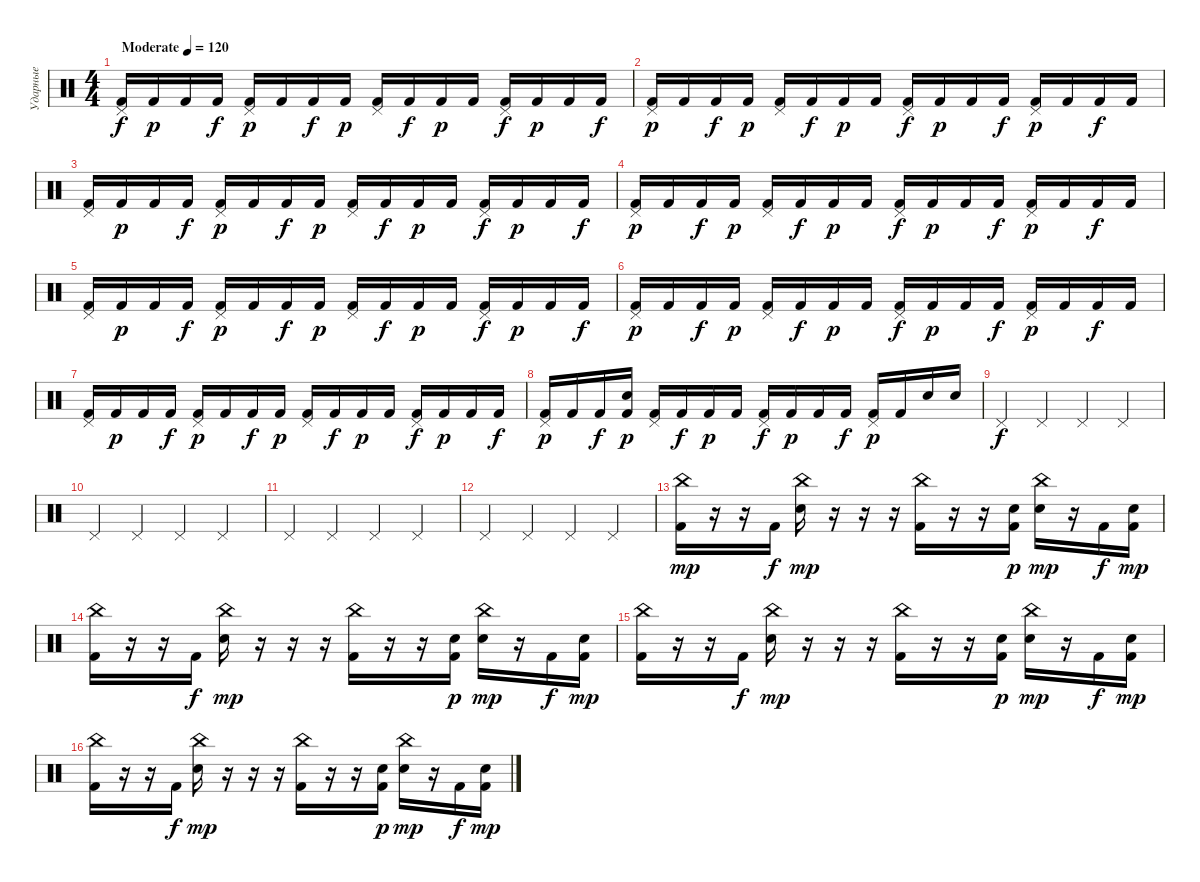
\track ("Ударные" "Ударные") {instrument percussion}
\staff {score}
\articulation defaults
\ts (4 4)
\tempo (120 "Moderate")
\clef neutral
\ks c
("Kick (hit) 2" "Pedal Hi-Hat (hit)").16{dy f} "Kick (hit) 2".16{dy p} "Kick (hit) 2".16 "Kick (hit) 2".16{dy f} ("Kick (hit) 2" "Pedal Hi-Hat (hit)").16{dy p} "Kick (hit) 2".16 "Kick (hit) 2".16{dy f} "Kick (hit) 2".16{dy p} ("Kick (hit) 2" "Pedal Hi-Hat (hit)").16 "Kick (hit) 2".16{dy f} "Kick (hit) 2".16{dy p} "Kick (hit) 2".16 ("Kick (hit) 2" "Pedal Hi-Hat (hit)").16{dy f} "Kick (hit) 2".16{dy p} "Kick (hit) 2".16 "Kick (hit) 2".16{dy f} |
("Kick (hit) 2" "Pedal Hi-Hat (hit)").16{dy p} "Kick (hit) 2".16 "Kick (hit) 2".16{dy f} "Kick (hit) 2".16{dy p} ("Kick (hit) 2" "Pedal Hi-Hat (hit)").16 "Kick (hit) 2".16{dy f} "Kick (hit) 2".16{dy p} "Kick (hit) 2".16 ("Kick (hit) 2" "Pedal Hi-Hat (hit)").16{dy f} "Kick (hit) 2".16{dy p} "Kick (hit) 2".16 "Kick (hit) 2".16{dy f} ("Kick (hit) 2" "Pedal Hi-Hat (hit)").16{dy p} "Kick (hit) 2".16 "Kick (hit) 2".16{dy f} "Kick (hit) 2".16 |
("Kick (hit) 2" "Pedal Hi-Hat (hit)").16 "Kick (hit) 2".16{dy p} "Kick (hit) 2".16 "Kick (hit) 2".16{dy f} ("Kick (hit) 2" "Pedal Hi-Hat (hit)").16{dy p} "Kick (hit) 2".16 "Kick (hit) 2".16{dy f} "Kick (hit) 2".16{dy p} ("Kick (hit) 2" "Pedal Hi-Hat (hit)").16 "Kick (hit) 2".16{dy f} "Kick (hit) 2".16{dy p} "Kick (hit) 2".16 ("Kick (hit) 2" "Pedal Hi-Hat (hit)").16{dy f} "Kick (hit) 2".16{dy p} "Kick (hit) 2".16 "Kick (hit) 2".16{dy f} |
("Kick (hit) 2" "Pedal Hi-Hat (hit)").16{dy p} "Kick (hit) 2".16 "Kick (hit) 2".16{dy f} "Kick (hit) 2".16{dy p} ("Kick (hit) 2" "Pedal Hi-Hat (hit)").16 "Kick (hit) 2".16{dy f} "Kick (hit) 2".16{dy p} "Kick (hit) 2".16 ("Kick (hit) 2" "Pedal Hi-Hat (hit)").16{dy f} "Kick (hit) 2".16{dy p} "Kick (hit) 2".16 "Kick (hit) 2".16{dy f} ("Kick (hit) 2" "Pedal Hi-Hat (hit)").16{dy p} "Kick (hit) 2".16 "Kick (hit) 2".16{dy f} "Kick (hit) 2".16 |
("Kick (hit) 2" "Pedal Hi-Hat (hit)").16 "Kick (hit) 2".16{dy p} "Kick (hit) 2".16 "Kick (hit) 2".16{dy f} ("Kick (hit) 2" "Pedal Hi-Hat (hit)").16{dy p} "Kick (hit) 2".16 "Kick (hit) 2".16{dy f} "Kick (hit) 2".16{dy p} ("Kick (hit) 2" "Pedal Hi-Hat (hit)").16 "Kick (hit) 2".16{dy f} "Kick (hit) 2".16{dy p} "Kick (hit) 2".16 ("Kick (hit) 2" "Pedal Hi-Hat (hit)").16{dy f} "Kick (hit) 2".16{dy p} "Kick (hit) 2".16 "Kick (hit) 2".16{dy f} |
("Kick (hit) 2" "Pedal Hi-Hat (hit)").16{dy p} "Kick (hit) 2".16 "Kick (hit) 2".16{dy f} "Kick (hit) 2".16{dy p} ("Kick (hit) 2" "Pedal Hi-Hat (hit)").16 "Kick (hit) 2".16{dy f} "Kick (hit) 2".16{dy p} "Kick (hit) 2".16 ("Kick (hit) 2" "Pedal Hi-Hat (hit)").16{dy f} "Kick (hit) 2".16{dy p} "Kick (hit) 2".16 "Kick (hit) 2".16{dy f} ("Kick (hit) 2" "Pedal Hi-Hat (hit)").16{dy p} "Kick (hit) 2".16 "Kick (hit) 2".16{dy f} "Kick (hit) 2".16 |
("Kick (hit) 2" "Pedal Hi-Hat (hit)").16 "Kick (hit) 2".16{dy p} "Kick (hit) 2".16 "Kick (hit) 2".16{dy f} ("Kick (hit) 2" "Pedal Hi-Hat (hit)").16{dy p} "Kick (hit) 2".16 "Kick (hit) 2".16{dy f} "Kick (hit) 2".16{dy p} ("Kick (hit) 2" "Pedal Hi-Hat (hit)").16 "Kick (hit) 2".16{dy f} "Kick (hit) 2".16{dy p} "Kick (hit) 2".16 ("Kick (hit) 2" "Pedal Hi-Hat (hit)").16{dy f} "Kick (hit) 2".16{dy p} "Kick (hit) 2".16 "Kick (hit) 2".16{dy f} |
("Kick (hit) 2" "Pedal Hi-Hat (hit)").16{dy p} "Kick (hit) 2".16 "Kick (hit) 2".16{dy f} ("Kick (hit) 2" "Electric Snare (hit)").16{dy p} ("Kick (hit) 2" "Pedal Hi-Hat (hit)").16 "Kick (hit) 2".16{dy f} "Kick (hit) 2".16{dy p} "Kick (hit) 2".16 ("Kick (hit) 2" "Pedal Hi-Hat (hit)").16{dy f} "Kick (hit) 2".16{dy p} "Kick (hit) 2".16 "Kick (hit) 2".16{dy f} ("Kick (hit) 2" "Pedal Hi-Hat (hit)").16{dy p} "Kick (hit) 2".16 "Electric Snare (hit)".16 "Electric Snare (hit)".16 |
"Pedal Hi-Hat (hit)".4{dy f} "Pedal Hi-Hat (hit)".4 "Pedal Hi-Hat (hit)".4 "Pedal Hi-Hat (hit)".4 |
"Pedal Hi-Hat (hit)".4 "Pedal Hi-Hat (hit)".4 "Pedal Hi-Hat (hit)".4 "Pedal Hi-Hat (hit)".4 |
"Pedal Hi-Hat (hit)".4 "Pedal Hi-Hat (hit)".4 "Pedal Hi-Hat (hit)".4 "Pedal Hi-Hat (hit)".4 |
"Pedal Hi-Hat (hit)".4 "Pedal Hi-Hat (hit)".4 "Pedal Hi-Hat (hit)".4 "Pedal Hi-Hat (hit)".4 |
("China (hit)" "Kick (hit) 2").16{dy mp} r.16 r.16 "Kick (hit) 2".16{dy f} ("China (hit)" "Electric Snare (hit)").16{dy mp} r.16 r.16 r.16 ("China (hit)" "Kick (hit) 2").16 r.16 r.16 ("Electric Snare (hit)" "Kick (hit) 2").16{dy p} ("China (hit)" "Electric Snare (hit)").16{dy mp} r.16 "Kick (hit) 2".16{dy f} ("Electric Snare (hit)" "Kick (hit) 2").16{dy mp} |
("China (hit)" "Kick (hit) 2").16 r.16 r.16 "Kick (hit) 2".16{dy f} ("China (hit)" "Electric Snare (hit)").16{dy mp} r.16 r.16 r.16 ("China (hit)" "Kick (hit) 2").16 r.16 r.16 ("Electric Snare (hit)" "Kick (hit) 2").16{dy p} ("China (hit)" "Electric Snare (hit)").16{dy mp} r.16 "Kick (hit) 2".16{dy f} ("Electric Snare (hit)" "Kick (hit) 2").16{dy mp} |
("China (hit)" "Kick (hit) 2").16 r.16 r.16 "Kick (hit) 2".16{dy f} ("China (hit)" "Electric Snare (hit)").16{dy mp} r.16 r.16 r.16 ("China (hit)" "Kick (hit) 2").16 r.16 r.16 ("Electric Snare (hit)" "Kick (hit) 2").16{dy p} ("China (hit)" "Electric Snare (hit)").16{dy mp} r.16 "Kick (hit) 2".16{dy f} ("Electric Snare (hit)" "Kick (hit) 2").16{dy mp} |
("China (hit)" "Kick (hit) 2").16 r.16 r.16 "Kick (hit) 2".16{dy f} ("China (hit)" "Electric Snare (hit)").16{dy mp} r.16 r.16 r.16 ("China (hit)" "Kick (hit) 2").16 r.16 r.16 ("Electric Snare (hit)" "Kick (hit) 2").16{dy p} ("China (hit)" "Electric Snare (hit)").16{dy mp} r.16 "Kick (hit) 2".16{dy f} ("Electric Snare (hit)" "Kick (hit) 2").16{dy mp}
